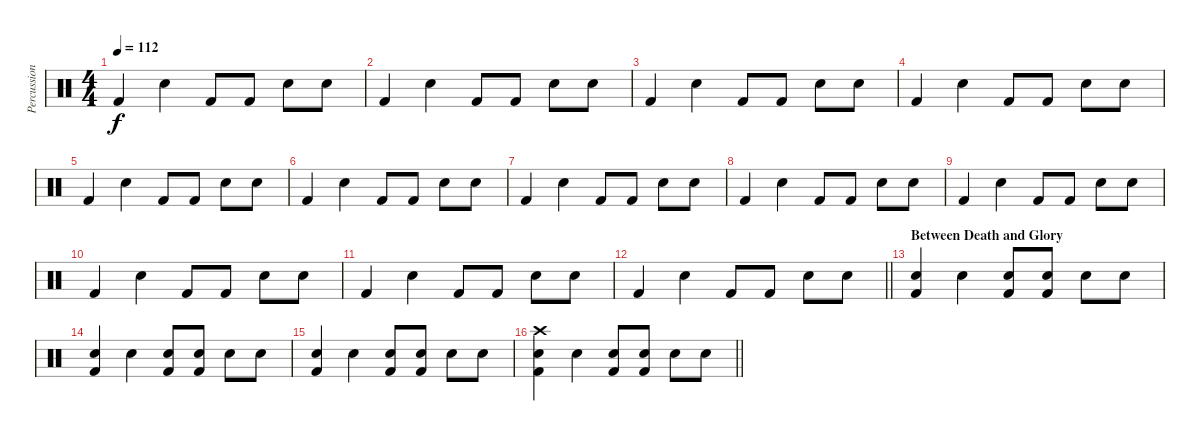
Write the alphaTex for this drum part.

\track ("Percussions" "Percussion") {instrument percussion}
\staff {score}
\articulation defaults
\ts (4 4)
\tempo 112
\clef neutral
\ks c "Kick (hit) 2".4{dy f} "Electric Snare (hit)".4 "Kick (hit) 2".8 "Kick (hit) 2".8 "Electric Snare (hit)".8 "Electric Snare (hit)".8
|
"Kick (hit) 2".4 "Electric Snare (hit)".4 "Kick (hit) 2".8 "Kick (hit) 2".8 "Electric Snare (hit)".8 "Electric Snare (hit)".8 |
"Kick (hit) 2".4 "Electric Snare (hit)".4 "Kick (hit) 2".8 "Kick (hit) 2".8 "Electric Snare (hit)".8 "Electric Snare (hit)".8 |
"Kick (hit) 2".4 "Electric Snare (hit)".4 "Kick (hit) 2".8 "Kick (hit) 2".8 "Electric Snare (hit)".8 "Electric Snare (hit)".8 |
"Kick (hit) 2".4 "Electric Snare (hit)".4 "Kick (hit) 2".8 "Kick (hit) 2".8 "Electric Snare (hit)".8 "Electric Snare (hit)".8 |
"Kick (hit) 2".4 "Electric Snare (hit)".4 "Kick (hit) 2".8 "Kick (hit) 2".8 "Electric Snare (hit)".8 "Electric Snare (hit)".8 |
"Kick (hit) 2".4 "Electric Snare (hit)".4 "Kick (hit) 2".8 "Kick (hit) 2".8 "Electric Snare (hit)".8 "Electric Snare (hit)".8 |
"Kick (hit) 2".4 "Electric Snare (hit)".4 "Kick (hit) 2".8 "Kick (hit) 2".8 "Electric Snare (hit)".8 "Electric Snare (hit)".8 |
"Kick (hit) 2".4 "Electric Snare (hit)".4 "Kick (hit) 2".8 "Kick (hit) 2".8 "Electric Snare (hit)".8 "Electric Snare (hit)".8 |
"Kick (hit) 2".4 "Electric Snare (hit)".4 "Kick (hit) 2".8 "Kick (hit) 2".8 "Electric Snare (hit)".8 "Electric Snare (hit)".8 |
"Kick (hit) 2".4 "Electric Snare (hit)".4 "Kick (hit) 2".8 "Kick (hit) 2".8 "Electric Snare (hit)".8 "Electric Snare (hit)".8 |
\barLineRight lightlight "Kick (hit) 2".4 "Electric Snare (hit)".4 "Kick (hit) 2".8 "Kick (hit) 2".8 "Electric Snare (hit)".8 "Electric Snare (hit)".8
|
\section ("" "Between Death and Glory")
("Electric Snare (hit)" "Kick (hit) 2").4 "Electric Snare (hit)".4 ("Electric Snare (hit)" "Kick (hit) 2").8 ("Electric Snare (hit)" "Kick (hit) 2").8 "Electric Snare (hit)".8 "Electric Snare (hit)".8 |
("Electric Snare (hit)" "Kick (hit) 2").4 "Electric Snare (hit)".4 ("Electric Snare (hit)" "Kick (hit) 2").8 ("Electric Snare (hit)" "Kick (hit) 2").8 "Electric Snare (hit)".8 "Electric Snare (hit)".8 |
("Electric Snare (hit)" "Kick (hit) 2").4 "Electric Snare (hit)".4 ("Electric Snare (hit)" "Kick (hit) 2").8 ("Electric Snare (hit)" "Kick (hit) 2").8 "Electric Snare (hit)".8 "Electric Snare (hit)".8 |
\barLineRight lightlight
("Electric Snare (hit)" "Crash high (hit)" "Kick (hit) 2").4 "Electric Snare (hit)".4 ("Electric Snare (hit)" "Kick (hit) 2").8 ("Electric Snare (hit)" "Kick (hit) 2").8 "Electric Snare (hit)".8 "Electric Snare (hit)".8
